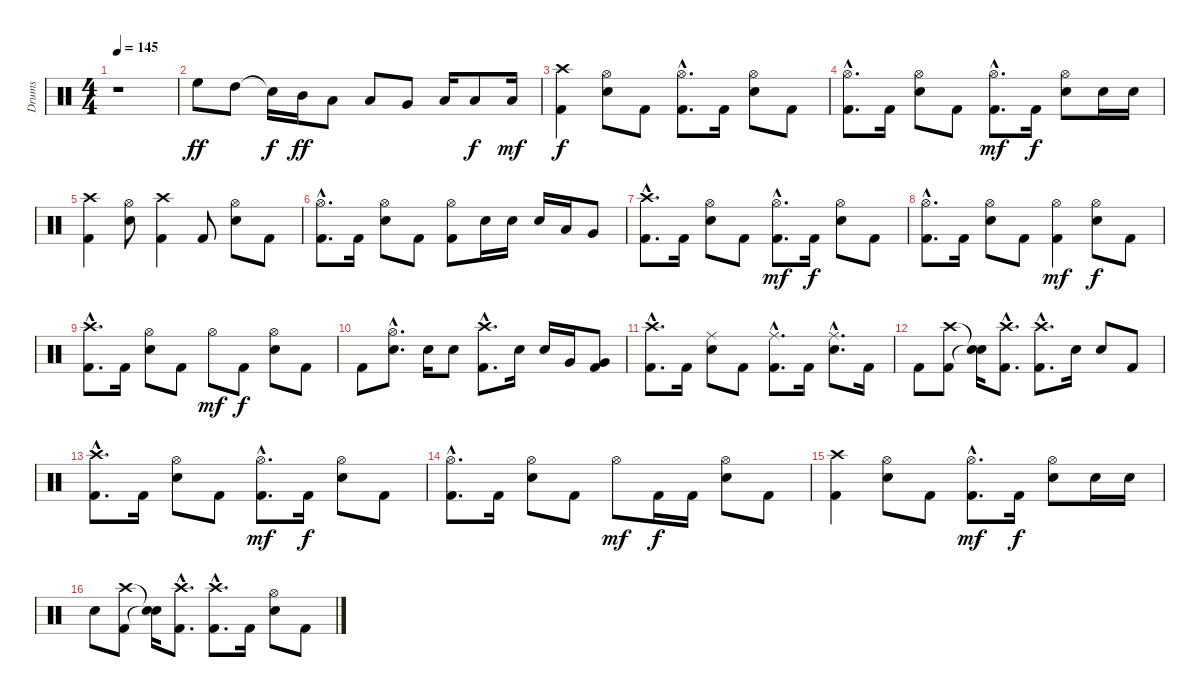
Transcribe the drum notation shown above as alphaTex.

\track ("Drums" "Drums") {instrument percussion}
\staff {score}
\articulation defaults
\ts (4 4)
\tempo 145
\clef neutral
\ks c
r.1{dy ff} |
"High Floor Tom (hit)".8 "High Tom (hit)".8 "Snare (hit)"{t}.16{dy f} "Mid Tom (hit)".16{dy ff} "Low Tom (hit)".8 "Low Tom (hit)".8 "Very Low Tom (hit)".8 "Low Floor Tom (hit)".16 "Low Floor Tom (hit)".8{dy f} "Low Floor Tom (hit)".16{dy mf} |
("Crash high (hit)" "Kick (hit) 2").4{dy f} ("Hi-Hat (open)" "Electric Snare (hit)").8 "Kick (hit) 2".8 ("Hi-Hat (open)"{hac} "Kick (hit) 2"{hac}).8{d} "Kick (hit) 2".16 ("Hi-Hat (open)" "Electric Snare (hit)").8 "Kick (hit) 2".8 |
("Hi-Hat (open)"{hac} "Kick (hit) 2"{hac}).8{d} "Kick (hit) 2".16 ("Hi-Hat (open)" "Electric Snare (hit)").8 "Kick (hit) 2".8 ("Hi-Hat (open)"{hac} "Kick (hit) 2"{hac}).8{d dy mf} "Kick (hit) 2".16{dy f} ("Hi-Hat (open)" "Electric Snare (hit)").8 "Electric Snare (hit)".16 "Electric Snare (hit)".16 |
("Crash high (hit)" "Kick (hit) 2").4 ("Hi-Hat (open)" "Electric Snare (hit)").8 ("Crash high (hit)" "Kick (hit) 2").4 "Kick (hit) 2".8 ("Hi-Hat (open)" "Electric Snare (hit)").8 "Kick (hit) 2".8 |
("Hi-Hat (open)"{hac} "Kick (hit) 2"{hac}).8{d} "Kick (hit) 2".16 ("Hi-Hat (open)" "Electric Snare (hit)").8 "Kick (hit) 2".8 ("Hi-Hat (open)" "Kick (hit) 2").8 "Electric Snare (hit)".16 "Electric Snare (hit)".16 "Electric Snare (hit)".16 "Low Tom (hit)".16 "Very Low Tom (hit)".8 |
("Crash high (hit)"{hac} "Kick (hit) 2"{hac}).8{d} "Kick (hit) 2".16 ("Hi-Hat (open)" "Electric Snare (hit)").8 "Kick (hit) 2".8 ("Hi-Hat (open)"{hac} "Kick (hit) 2"{hac}).8{d dy mf} "Kick (hit) 2".16{dy f} ("Hi-Hat (open)" "Electric Snare (hit)").8 "Kick (hit) 2".8 |
("Hi-Hat (open)"{hac} "Kick (hit) 2"{hac}).8{d} "Kick (hit) 2".16 ("Hi-Hat (open)" "Electric Snare (hit)").8 "Kick (hit) 2".8 ("Hi-Hat (open)" "Kick (hit) 2").4{dy mf} ("Hi-Hat (open)" "Electric Snare (hit)").8{dy f} "Kick (hit) 2".8 |
("Crash high (hit)"{hac} "Kick (hit) 2"{hac}).8{d} "Kick (hit) 2".16 ("Hi-Hat (open)" "Electric Snare (hit)").8 "Kick (hit) 2".8 "Hi-Hat (open)".8{dy mf} "Kick (hit) 2".8{dy f} ("Hi-Hat (open)" "Electric Snare (hit)").8 "Kick (hit) 2".8 |
"Kick (hit) 2".8 ("Hi-Hat (open)"{hac} "Electric Snare (hit)"{hac}).8{d} "Electric Snare (hit)".16 "Electric Snare (hit)".8 ("Crash high (hit)"{hac} "Kick (hit) 2"{hac}).8{d} "Electric Snare (hit)".16 "Electric Snare (hit)".16 "Very Low Tom (hit)".16 ("Very Low Tom (hit)" "Kick (hit) 2").8 |
("Crash high (hit)"{hac} "Kick (hit) 2"{hac}).8{d} "Kick (hit) 2".16 ("Ride (middle)" "Electric Snare (hit)").8 "Kick (hit) 2".8 ("Ride (middle)"{hac} "Kick (hit) 2"{hac}).8{d} "Kick (hit) 2".16 ("Ride (middle)"{hac} "Electric Snare (hit)"{hac}).8{d} "Kick (hit) 2".16 |
"Kick (hit) 2".8 ("Crash high (hit)" "Kick (hit) 2").8 ("Snare (hit)"{t} "Snare (hit)"{t}).16 ("Crash high (hit)"{hac} "Kick (hit) 2"{hac}).8{d} ("Crash high (hit)"{hac} "Kick (hit) 2"{hac}).8{d} "Electric Snare (hit)".16 "Electric Snare (hit)".8 "Kick (hit) 2".8 |
("Crash high (hit)"{hac} "Kick (hit) 2"{hac}).8{d} "Kick (hit) 2".16 ("Hi-Hat (open)" "Electric Snare (hit)").8 "Kick (hit) 2".8 ("Hi-Hat (open)"{hac} "Kick (hit) 2"{hac}).8{d dy mf} "Kick (hit) 2".16{dy f} ("Hi-Hat (open)" "Electric Snare (hit)").8 "Kick (hit) 2".8 |
("Hi-Hat (open)"{hac} "Kick (hit) 2"{hac}).8{d} "Kick (hit) 2".16 ("Hi-Hat (open)" "Electric Snare (hit)").8 "Kick (hit) 2".8 "Hi-Hat (open)".8{dy mf} "Kick (hit) 2".16{dy f} "Kick (hit) 2".16 ("Hi-Hat (open)" "Electric Snare (hit)").8 "Kick (hit) 2".8 |
("Crash high (hit)" "Kick (hit) 2").4 ("Hi-Hat (open)" "Electric Snare (hit)").8 "Kick (hit) 2".8 ("Hi-Hat (open)"{hac} "Kick (hit) 2"{hac}).8{d dy mf} "Kick (hit) 2".16{dy f} ("Hi-Hat (open)" "Electric Snare (hit)").8 "Electric Snare (hit)".16 "Electric Snare (hit)".16 |
"Electric Snare (hit)".8 ("Crash high (hit)" "Kick (hit) 2").8 ("Snare (hit)"{t} "Snare (hit)"{t}).16 ("Crash high (hit)"{hac} "Kick (hit) 2"{hac}).8{d} ("Crash high (hit)"{hac} "Kick (hit) 2"{hac}).8{d} "Kick (hit) 2".16 ("Hi-Hat (open)" "Electric Snare (hit)").8 "Kick (hit) 2".8
